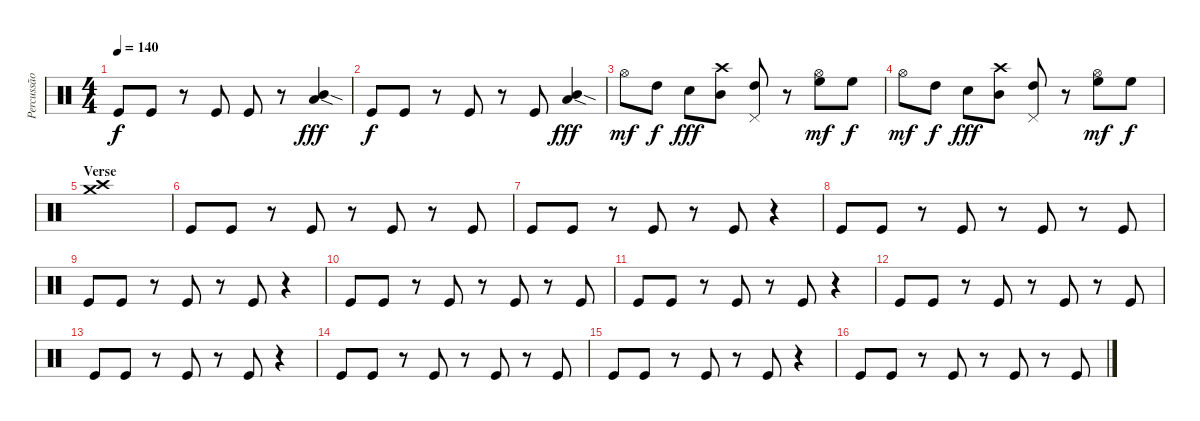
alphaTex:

\track ("Percussão (Lucas)" "Percussão ") {instrument percussion}
\staff {score}
\articulation defaults
\ts (4 4)
\tempo 140
\clef neutral
\ks c "Kick (hit)".8{dy f} "Kick (hit)".8
r.8 "Kick (hit)".8 "Kick (hit)".8 r.8 ("Mid Tom (hit)"{sod} "Low Tom (hit)"{sod}).4{dy fff} |
"Kick (hit)".8{dy f} "Kick (hit)".8 r.8 "Kick (hit)".8 r.8 "Kick (hit)".8 ("Mid Tom (hit)"{sod} "Low Tom (hit)"{sod}).4{dy fff} |
"Hi-Hat (open)".8{dy mf} "High Tom (hit)".8{dy f} "Electric Snare (hit)".8{dy fff} ("Crash high (hit)" "Mid Tom (hit)").8 ("Pedal Hi-Hat (hit)" "High Tom (hit)").8 r.8 ("Hi-Hat (open)" "High Floor Tom (hit)").8{dy mf} "High Floor Tom (hit)".8{dy f} |
"Hi-Hat (open)".8{dy mf} "High Tom (hit)".8{dy f} "Electric Snare (hit)".8{dy fff} ("Crash high (hit)" "Mid Tom (hit)").8 ("Pedal Hi-Hat (hit)" "High Tom (hit)").8 r.8 ("Hi-Hat (open)" "High Floor Tom (hit)").8{dy mf} "High Floor Tom (hit)".8{dy f} |
\section ("" "Verse")
("Crash high (hit)" "Crash medium (hit)").1 |
"Kick (hit)".8 "Kick (hit)".8 r.8 "Kick (hit)".8 r.8 "Kick (hit)".8 r.8 "Kick (hit)".8 |
"Kick (hit)".8 "Kick (hit)".8 r.8 "Kick (hit)".8 r.8 "Kick (hit)".8 r.4 |
"Kick (hit)".8 "Kick (hit)".8 r.8 "Kick (hit)".8 r.8 "Kick (hit)".8 r.8 "Kick (hit)".8 |
"Kick (hit)".8 "Kick (hit)".8 r.8 "Kick (hit)".8 r.8 "Kick (hit)".8 r.4 |
"Kick (hit)".8 "Kick (hit)".8 r.8 "Kick (hit)".8 r.8 "Kick (hit)".8 r.8 "Kick (hit)".8 |
"Kick (hit)".8 "Kick (hit)".8 r.8 "Kick (hit)".8 r.8 "Kick (hit)".8 r.4 |
"Kick (hit)".8 "Kick (hit)".8 r.8 "Kick (hit)".8 r.8 "Kick (hit)".8 r.8 "Kick (hit)".8 |
"Kick (hit)".8 "Kick (hit)".8 r.8 "Kick (hit)".8 r.8 "Kick (hit)".8 r.4 |
"Kick (hit)".8 "Kick (hit)".8 r.8 "Kick (hit)".8 r.8 "Kick (hit)".8 r.8 "Kick (hit)".8 |
"Kick (hit)".8 "Kick (hit)".8 r.8 "Kick (hit)".8 r.8 "Kick (hit)".8 r.4 |
"Kick (hit)".8 "Kick (hit)".8 r.8 "Kick (hit)".8 r.8 "Kick (hit)".8 r.8 "Kick (hit)".8
